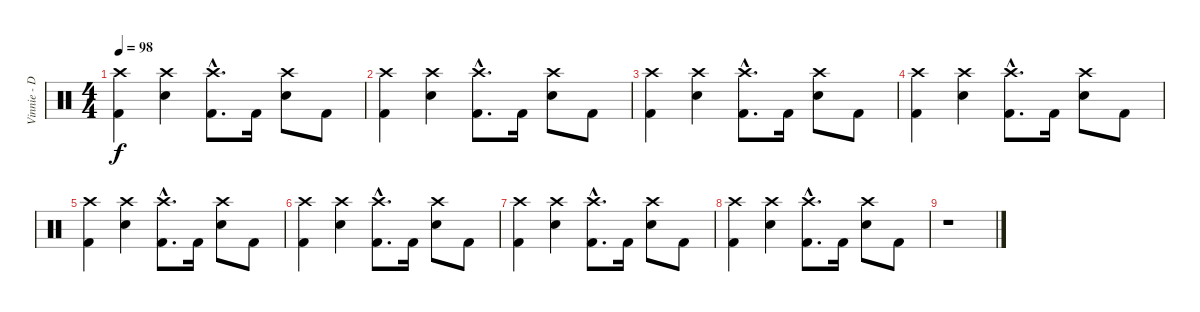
\track ("Vinnie - Drums" "Vinnie - D") {instrument percussion}
\staff {score}
\articulation defaults
\ts (4 4)
\tempo 98
\clef neutral
\ks c
("Crash high (hit)" "Kick (hit) 2").4{dy f} ("Crash high (hit)" "Electric Snare (hit)").4 ("Crash high (hit)"{hac} "Kick (hit) 2"{hac}).8{d} "Kick (hit) 2".16 ("Crash high (hit)" "Electric Snare (hit)").8 "Kick (hit) 2".8 |
("Crash high (hit)" "Kick (hit) 2").4 ("Crash high (hit)" "Electric Snare (hit)").4 ("Crash high (hit)"{hac} "Kick (hit) 2"{hac}).8{d} "Kick (hit) 2".16 ("Crash high (hit)" "Electric Snare (hit)").8 "Kick (hit) 2".8 |
("Crash high (hit)" "Kick (hit) 2").4 ("Crash high (hit)" "Electric Snare (hit)").4 ("Crash high (hit)"{hac} "Kick (hit) 2"{hac}).8{d} "Kick (hit) 2".16 ("Crash high (hit)" "Electric Snare (hit)").8 "Kick (hit) 2".8 |
("Crash high (hit)" "Kick (hit) 2").4 ("Crash high (hit)" "Electric Snare (hit)").4 ("Crash high (hit)"{hac} "Kick (hit) 2"{hac}).8{d} "Kick (hit) 2".16 ("Crash high (hit)" "Electric Snare (hit)").8 "Kick (hit) 2".8 |
("Crash high (hit)" "Kick (hit) 2").4{volume 6} ("Crash high (hit)" "Electric Snare (hit)").4 ("Crash high (hit)"{hac} "Kick (hit) 2"{hac}).8{d} "Kick (hit) 2".16 ("Crash high (hit)" "Electric Snare (hit)").8 "Kick (hit) 2".8 |
("Crash high (hit)" "Kick (hit) 2").4 ("Crash high (hit)" "Electric Snare (hit)").4 ("Crash high (hit)"{hac} "Kick (hit) 2"{hac}).8{d} "Kick (hit) 2".16 ("Crash high (hit)" "Electric Snare (hit)").8 "Kick (hit) 2".8 |
("Crash high (hit)" "Kick (hit) 2").4{volume 0} ("Crash high (hit)" "Electric Snare (hit)").4 ("Crash high (hit)"{hac} "Kick (hit) 2"{hac}).8{d} "Kick (hit) 2".16 ("Crash high (hit)" "Electric Snare (hit)").8 "Kick (hit) 2".8 |
("Crash high (hit)" "Kick (hit) 2").4 ("Crash high (hit)" "Electric Snare (hit)").4 ("Crash high (hit)"{hac} "Kick (hit) 2"{hac}).8{d} "Kick (hit) 2".16 ("Crash high (hit)" "Electric Snare (hit)").8 "Kick (hit) 2".8 |
r.1
